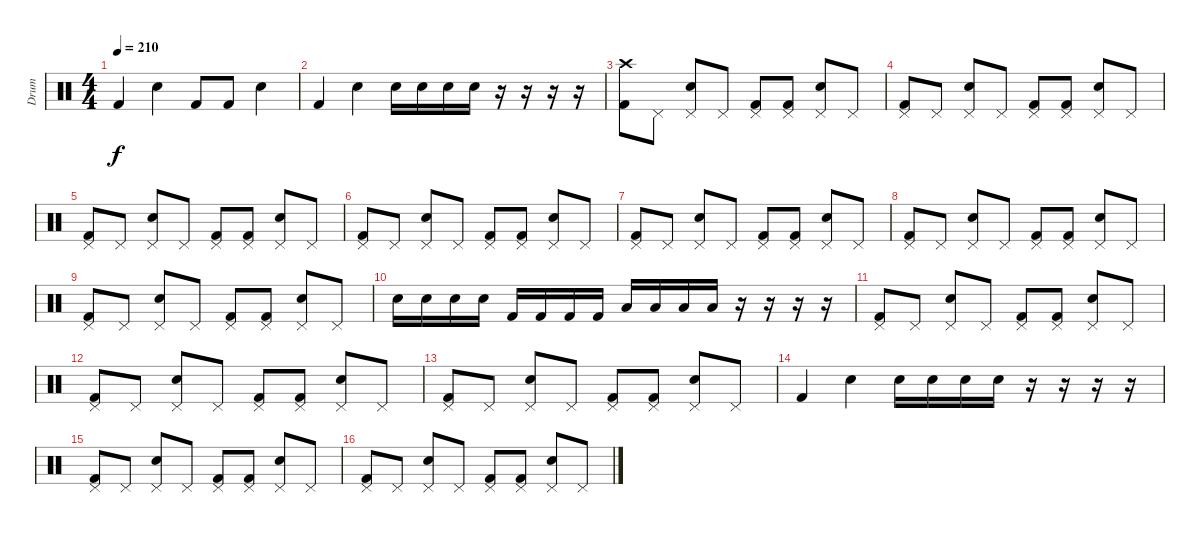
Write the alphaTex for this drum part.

\track ("Drum" "Drum") {instrument percussion}
\staff {score}
\articulation defaults
\ts (4 4)
\tempo 210
\clef neutral
\ks c "Kick (hit) 2".4{dy f} "Snare (hit) 2".4 "Kick (hit) 2".8 "Kick (hit) 2".8 "Snare (hit) 2".4
|
"Kick (hit) 2".4 "Snare (hit) 2".4 "Snare (hit) 2".16 "Snare (hit) 2".16 "Snare (hit) 2".16 "Snare (hit) 2".16 r.16 r.16 r.16 r.16 |
("Crash high (hit)" "Kick (hit) 2").8 "Pedal Hi-Hat (hit)".8 ("Pedal Hi-Hat (hit)" "Snare (hit) 2").8 "Pedal Hi-Hat (hit)".8 ("Pedal Hi-Hat (hit)" "Kick (hit) 2").8 ("Pedal Hi-Hat (hit)" "Kick (hit) 2").8 ("Pedal Hi-Hat (hit)" "Snare (hit) 2").8 "Pedal Hi-Hat (hit)".8 |
("Pedal Hi-Hat (hit)" "Kick (hit) 2").8 "Pedal Hi-Hat (hit)".8 ("Pedal Hi-Hat (hit)" "Snare (hit) 2").8 "Pedal Hi-Hat (hit)".8 ("Pedal Hi-Hat (hit)" "Kick (hit) 2").8 ("Pedal Hi-Hat (hit)" "Kick (hit) 2").8 ("Pedal Hi-Hat (hit)" "Snare (hit) 2").8 "Pedal Hi-Hat (hit)".8 |
("Pedal Hi-Hat (hit)" "Kick (hit) 2").8 "Pedal Hi-Hat (hit)".8 ("Pedal Hi-Hat (hit)" "Snare (hit) 2").8 "Pedal Hi-Hat (hit)".8 ("Pedal Hi-Hat (hit)" "Kick (hit) 2").8 ("Pedal Hi-Hat (hit)" "Kick (hit) 2").8 ("Pedal Hi-Hat (hit)" "Snare (hit) 2").8 "Pedal Hi-Hat (hit)".8 |
("Pedal Hi-Hat (hit)" "Kick (hit) 2").8 "Pedal Hi-Hat (hit)".8 ("Pedal Hi-Hat (hit)" "Snare (hit) 2").8 "Pedal Hi-Hat (hit)".8 ("Pedal Hi-Hat (hit)" "Kick (hit) 2").8 ("Pedal Hi-Hat (hit)" "Kick (hit) 2").8 ("Pedal Hi-Hat (hit)" "Snare (hit) 2").8 "Pedal Hi-Hat (hit)".8 |
("Pedal Hi-Hat (hit)" "Kick (hit) 2").8 "Pedal Hi-Hat (hit)".8 ("Pedal Hi-Hat (hit)" "Snare (hit) 2").8 "Pedal Hi-Hat (hit)".8 ("Pedal Hi-Hat (hit)" "Kick (hit) 2").8 ("Pedal Hi-Hat (hit)" "Kick (hit) 2").8 ("Pedal Hi-Hat (hit)" "Snare (hit) 2").8 "Pedal Hi-Hat (hit)".8 |
("Pedal Hi-Hat (hit)" "Kick (hit) 2").8 "Pedal Hi-Hat (hit)".8 ("Pedal Hi-Hat (hit)" "Snare (hit) 2").8 "Pedal Hi-Hat (hit)".8 ("Pedal Hi-Hat (hit)" "Kick (hit) 2").8 ("Pedal Hi-Hat (hit)" "Kick (hit) 2").8 ("Pedal Hi-Hat (hit)" "Snare (hit) 2").8 "Pedal Hi-Hat (hit)".8 |
("Pedal Hi-Hat (hit)" "Kick (hit) 2").8 "Pedal Hi-Hat (hit)".8 ("Pedal Hi-Hat (hit)" "Snare (hit) 2").8 "Pedal Hi-Hat (hit)".8 ("Pedal Hi-Hat (hit)" "Kick (hit) 2").8 ("Pedal Hi-Hat (hit)" "Kick (hit) 2").8 ("Pedal Hi-Hat (hit)" "Snare (hit) 2").8 "Pedal Hi-Hat (hit)".8 |
"Snare (hit) 2".16 "Snare (hit) 2".16 "Snare (hit) 2".16 "Snare (hit) 2".16 "Kick (hit) 2".16 "Kick (hit) 2".16 "Kick (hit) 2".16 "Kick (hit) 2".16 "Low Floor Tom (hit)".16 "Low Floor Tom (hit)".16 "Low Floor Tom (hit)".16 "Low Floor Tom (hit)".16 r.16 r.16 r.16 r.16 |
("Pedal Hi-Hat (hit)" "Kick (hit) 2").8 "Pedal Hi-Hat (hit)".8 ("Pedal Hi-Hat (hit)" "Snare (hit) 2").8 "Pedal Hi-Hat (hit)".8 ("Pedal Hi-Hat (hit)" "Kick (hit) 2").8 ("Pedal Hi-Hat (hit)" "Kick (hit) 2").8 ("Pedal Hi-Hat (hit)" "Snare (hit) 2").8 "Pedal Hi-Hat (hit)".8 |
("Pedal Hi-Hat (hit)" "Kick (hit) 2").8 "Pedal Hi-Hat (hit)".8 ("Pedal Hi-Hat (hit)" "Snare (hit) 2").8 "Pedal Hi-Hat (hit)".8 ("Pedal Hi-Hat (hit)" "Kick (hit) 2").8 ("Pedal Hi-Hat (hit)" "Kick (hit) 2").8 ("Pedal Hi-Hat (hit)" "Snare (hit) 2").8 "Pedal Hi-Hat (hit)".8 |
("Pedal Hi-Hat (hit)" "Kick (hit) 2").8 "Pedal Hi-Hat (hit)".8 ("Pedal Hi-Hat (hit)" "Snare (hit) 2").8 "Pedal Hi-Hat (hit)".8 ("Pedal Hi-Hat (hit)" "Kick (hit) 2").8 ("Pedal Hi-Hat (hit)" "Kick (hit) 2").8 ("Pedal Hi-Hat (hit)" "Snare (hit) 2").8 "Pedal Hi-Hat (hit)".8 |
"Kick (hit) 2".4 "Snare (hit) 2".4 "Snare (hit) 2".16 "Snare (hit) 2".16 "Snare (hit) 2".16 "Snare (hit) 2".16 r.16 r.16 r.16 r.16 |
("Pedal Hi-Hat (hit)" "Kick (hit) 2").8 "Pedal Hi-Hat (hit)".8 ("Pedal Hi-Hat (hit)" "Snare (hit) 2").8 "Pedal Hi-Hat (hit)".8 ("Pedal Hi-Hat (hit)" "Kick (hit) 2").8 ("Pedal Hi-Hat (hit)" "Kick (hit) 2").8 ("Pedal Hi-Hat (hit)" "Snare (hit) 2").8 "Pedal Hi-Hat (hit)".8 |
("Pedal Hi-Hat (hit)" "Kick (hit) 2").8 "Pedal Hi-Hat (hit)".8 ("Pedal Hi-Hat (hit)" "Snare (hit) 2").8 "Pedal Hi-Hat (hit)".8 ("Pedal Hi-Hat (hit)" "Kick (hit) 2").8 ("Pedal Hi-Hat (hit)" "Kick (hit) 2").8 ("Pedal Hi-Hat (hit)" "Snare (hit) 2").8 "Pedal Hi-Hat (hit)".8
